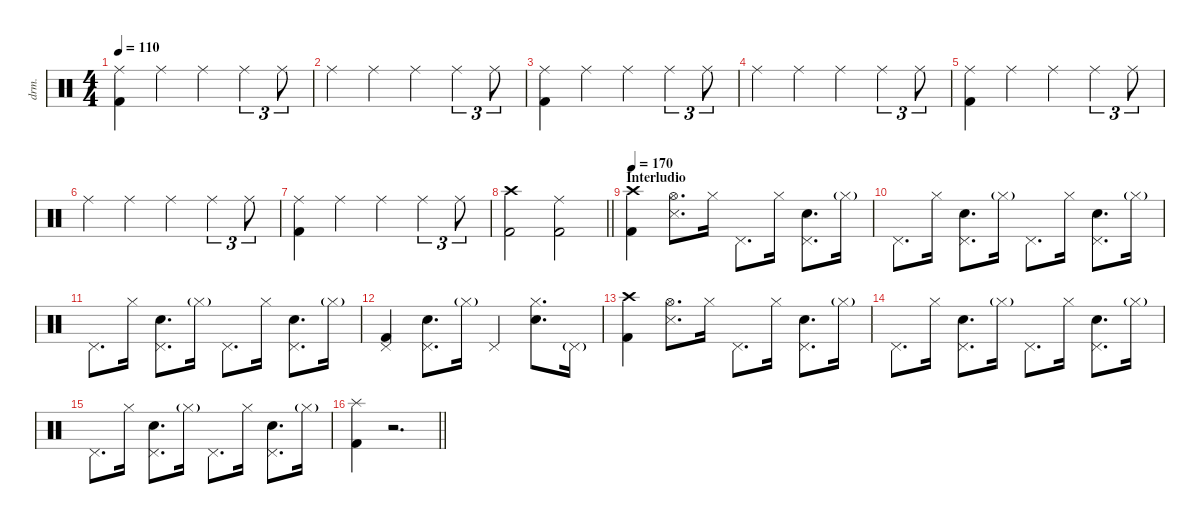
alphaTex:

\defaultSystemsLayout 4
\hideDynamics
\bracketExtendMode nobrackets
\otherSystemsTrackNameOrientation horizontal
\track ("Drums" "drm.") {instrument percussion}
\staff {score}
\articulation defaults
\ts (4 4)
\tempo 110
\clef neutral
\ks c
("Ride (middle)" "Kick (hit) 2").4{dy f beam Down} "Ride (middle)".4{dy mp beam Down} "Ride (middle)".4{beam Down} "Ride (middle)".4{tu (3 2) beam Down} "Ride (middle)".8{tu (3 2) beam Down} |
"Ride (middle)".4{beam Down} "Ride (middle)".4{beam Down} "Ride (middle)".4{beam Down} "Ride (middle)".4{tu (3 2) beam Down} "Ride (middle)".8{tu (3 2) beam Down} |
("Ride (middle)" "Kick (hit) 2").4{dy f beam Down} "Ride (middle)".4{dy mp beam Down} "Ride (middle)".4{beam Down} "Ride (middle)".4{tu (3 2) beam Down} "Ride (middle)".8{tu (3 2) beam Down} |
"Ride (middle)".4{beam Down} "Ride (middle)".4{beam Down} "Ride (middle)".4{beam Down} "Ride (middle)".4{tu (3 2) beam Down} "Ride (middle)".8{tu (3 2) beam Down} |
("Ride (middle)" "Kick (hit) 2").4{dy f beam Down} "Ride (middle)".4{dy mp beam Down} "Ride (middle)".4{beam Down} "Ride (middle)".4{tu (3 2) beam Down} "Ride (middle)".8{tu (3 2) beam Down} |
"Ride (middle)".4{beam Down} "Ride (middle)".4{beam Down} "Ride (middle)".4{beam Down} "Ride (middle)".4{tu (3 2) beam Down} "Ride (middle)".8{tu (3 2) beam Down} |
("Ride (middle)" "Kick (hit) 2").4{dy f beam Down} "Ride (middle)".4{dy mp beam Down} "Ride (middle)".4{beam Down} "Ride (middle)".4{tu (3 2) beam Down} "Ride (middle)".8{tu (3 2) beam Down} |
\barLineRight lightlight
("Crash high (hit)" "Kick (hit) 2").2{dy f beam Down} ("Ride (middle)" "Kick (hit) 2").2{beam Down} |
\section ("" "Interludio")
\tempo 170
("Crash high (hit)" "Kick (hit) 2").4{beam Down} ("Hi-Hat (open)" "Snare (side stick) 3").8{d beam Down} "Hi-Hat (closed)".16{beam Down} "Pedal Hi-Hat (hit)".8{d beam Down} "Hi-Hat (closed)".16{beam Down} ("Pedal Hi-Hat (hit)" "Snare (hit) 2").8{d beam Down} "Hi-Hat (closed)"{g}.16{dy mf beam Down} |
"Pedal Hi-Hat (hit)".8{d dy f beam Down} "Hi-Hat (closed)".16{beam Down} ("Pedal Hi-Hat (hit)" "Snare (hit) 2").8{d beam Down} "Hi-Hat (closed)"{g}.16{dy mf beam Down} "Pedal Hi-Hat (hit)".8{d dy f beam Down} "Hi-Hat (closed)".16{beam Down} ("Pedal Hi-Hat (hit)" "Snare (hit) 2").8{d beam Down} "Hi-Hat (closed)"{g}.16{dy mf beam Down} |
"Pedal Hi-Hat (hit)".8{d dy f beam Down} "Hi-Hat (closed)".16{beam Down} ("Pedal Hi-Hat (hit)" "Snare (hit) 2").8{d beam Down} "Hi-Hat (closed)"{g}.16{dy mf beam Down} "Pedal Hi-Hat (hit)".8{d dy f beam Down} "Hi-Hat (closed)".16{beam Down} ("Pedal Hi-Hat (hit)" "Snare (hit) 2").8{d beam Down} "Hi-Hat (closed)"{g}.16{dy mf beam Down} |
("Pedal Hi-Hat (hit)" "Kick (hit) 2").4{dy f beam Up} ("Pedal Hi-Hat (hit)" "Snare (hit) 2").8{d beam Down} "Hi-Hat (closed)"{g}.16{dy mf beam Down} "Pedal Hi-Hat (hit)".4{dy f beam Up} ("Hi-Hat (closed)" "Snare (hit) 2").8{d beam Down} "Pedal Hi-Hat (hit)"{g}.16{dy mf beam Down} |
("Crash high (hit)" "Kick (hit) 2").4{dy f beam Down} ("Hi-Hat (open)" "Snare (side stick) 3").8{d beam Down} "Hi-Hat (closed)".16{beam Down} "Pedal Hi-Hat (hit)".8{d beam Down} "Hi-Hat (closed)".16{beam Down} ("Pedal Hi-Hat (hit)" "Snare (hit) 2").8{d beam Down} "Hi-Hat (closed)"{g}.16{dy mf beam Down} |
"Pedal Hi-Hat (hit)".8{d dy f beam Down} "Hi-Hat (closed)".16{beam Down} ("Pedal Hi-Hat (hit)" "Snare (hit) 2").8{d beam Down} "Hi-Hat (closed)"{g}.16{dy mf beam Down} "Pedal Hi-Hat (hit)".8{d dy f beam Down} "Hi-Hat (closed)".16{beam Down} ("Pedal Hi-Hat (hit)" "Snare (hit) 2").8{d beam Down} "Hi-Hat (closed)"{g}.16{dy mf beam Down} |
"Pedal Hi-Hat (hit)".8{d dy f beam Down} "Hi-Hat (closed)".16{beam Down} ("Pedal Hi-Hat (hit)" "Snare (hit) 2").8{d beam Down} "Hi-Hat (closed)"{g}.16{dy mf beam Down} "Pedal Hi-Hat (hit)".8{d dy f beam Down} "Hi-Hat (closed)".16{beam Down} ("Pedal Hi-Hat (hit)" "Snare (hit) 2").8{d beam Down} "Hi-Hat (closed)"{g}.16{dy mf beam Down} |
\barLineRight lightlight
("Splash (hit)" "Kick (hit) 2").4{dy f beam Down} r.2{d beam Down}
